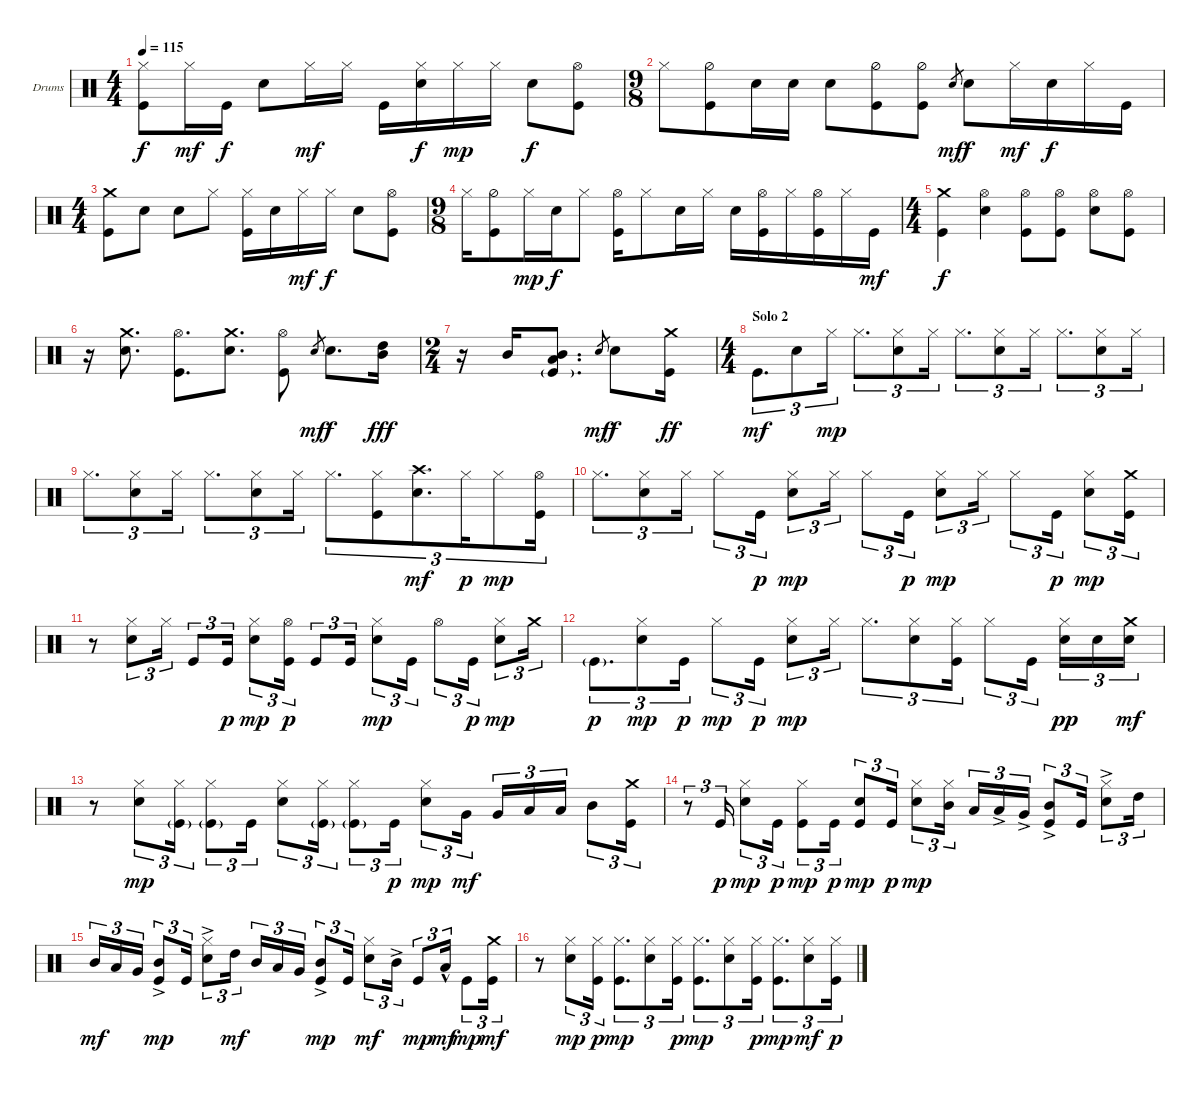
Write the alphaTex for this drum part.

\defaultSystemsLayout 4
\bracketExtendMode groupsimilarinstruments
\firstSystemTrackNameOrientation horizontal
\otherSystemsTrackNameOrientation horizontal
\track ("Batterie " "Drums") {instrument percussion}
\staff {score}
\articulation defaults
\ts (4 4)
\tempo 115
\clef neutral
\ks c
("Kick (hit)" "Hi-Hat (closed)").8{dy f} "Hi-Hat (closed)".16{dy mf} "Kick (hit)".16{dy f} "Snare (hit) 2".8 "Hi-Hat (closed)".16{dy mf} "Hi-Hat (closed)".16 "Kick (hit)".16 ("Snare (hit) 2" "Hi-Hat (closed)").16{dy f} "Hi-Hat (closed)".16{dy mp} "Hi-Hat (closed)".16 "Snare (hit) 2".8{dy f} ("Kick (hit)" "Hi-Hat (open)").8 |
\ts (9 8)
"Hi-Hat (closed)".8 ("Kick (hit)" "Hi-Hat (half)").8 "Snare (hit) 2".16 "Snare (hit) 2".16 "Snare (hit) 2".8 ("Kick (hit)" "Hi-Hat (half)").8 ("Kick (hit)" "Hi-Hat (half)").8 "Snare (hit) 2".8{gr dy mf} "Snare (hit) 2".8{dy f} "Hi-Hat (closed)".16{dy mf} "Snare (hit) 2".16{dy f} "Hi-Hat (closed)".16 "Kick (hit)".16 |
\ts (4 4)
("Kick (hit)" "Crash medium (hit)").8 "Snare (hit) 2".8 "Snare (hit) 2".8 "Hi-Hat (closed)".8 ("Kick (hit)" "Hi-Hat (closed)").16 "Snare (hit) 2".16 "Hi-Hat (closed)".16{dy mf} "Hi-Hat (closed)".16{dy f} "Snare (hit) 2".8 ("Kick (hit)" "Hi-Hat (open)").8 |
\ts (9 8)
"Hi-Hat (closed)".16 ("Kick (hit)" "Hi-Hat (half)").8 "Hi-Hat (closed)".16{dy mp} "Snare (hit) 2".16{dy f} "Hi-Hat (closed)".8 ("Kick (hit)" "Hi-Hat (open)").16 "Hi-Hat (closed)".8 "Snare (hit) 2".16 "Hi-Hat (closed)".16 "Snare (hit) 2".16 ("Kick (hit)" "Hi-Hat (open)").16 "Hi-Hat (closed)".16 ("Kick (hit)" "Hi-Hat (open)").16 "Hi-Hat (closed)".16 "Kick (hit)".16{dy mf} |
\ts (4 4)
("Kick (hit)" "Crash medium (hit)").4{dy f} ("Snare (hit) 2" "Hi-Hat (open)").4 ("Hi-Hat (open)" "Kick (hit)").8 ("Kick (hit)" "Hi-Hat (open)").8 ("Snare (hit) 2" "Hi-Hat (open)").8 ("Kick (hit)" "Hi-Hat (open)").8 |
r.16 ("Snare (hit) 2" "Crash medium (hit)").8{d} ("Kick (hit)" "Hi-Hat (open)").8{d} ("Snare (hit) 2" "Crash medium (hit)").8{d} ("Kick (hit)" "Hi-Hat (open)").8 "Snare (hit) 2".8{gr dy mf} "Snare (hit) 2".8{d dy f} ("Mid Tom (hit)" "High Tom (hit)").16{dy fff} |
\ts (2 4)
r.16 "Mid Tom (hit)".16 ("Mid Tom (hit)" "Low Tom (hit)" "Kick (hit)"{g}).8{d} "Snare (hit) 2".8{gr dy mf} "Snare (hit) 2".8{dy f} ("Kick (hit)" "Crash medium (hit)").16{dy ff} |
\ts (4 4)
\section ("" "Solo 2")
"Kick (hit)".8{d tu (3 2) dy mf} "Snare (hit) 2".8{tu (3 2)} "Hi-Hat (closed)".16{tu (3 2) dy mp} "Hi-Hat (closed)".8{d tu (3 2)} ("Snare (hit) 2" "Hi-Hat (closed)").8{tu (3 2)} "Hi-Hat (closed)".16{tu (3 2)} "Hi-Hat (closed)".8{d tu (3 2)} ("Snare (hit) 2" "Hi-Hat (closed)").8{tu (3 2)} "Hi-Hat (closed)".16{tu (3 2)} "Hi-Hat (closed)".8{d tu (3 2)} ("Snare (hit) 2" "Hi-Hat (closed)").8{tu (3 2)} "Hi-Hat (closed)".16{tu (3 2)} |
"Hi-Hat (closed)".8{d tu (3 2)} ("Snare (hit) 2" "Hi-Hat (closed)").8{tu (3 2)} "Hi-Hat (closed)".16{tu (3 2)} "Hi-Hat (closed)".8{d tu (3 2)} ("Snare (hit) 2" "Hi-Hat (closed)").8{tu (3 2)} "Hi-Hat (closed)".16{tu (3 2)} "Hi-Hat (closed)".8{d tu (3 2)} ("Hi-Hat (closed)" "Kick (hit)").8{tu (3 2)} ("Snare (hit) 2" "Crash high (hit)").8{d tu (3 2) dy mf} "Hi-Hat (closed)".16{tu (3 2) dy p} "Hi-Hat (closed)".8{tu (3 2) dy mp} ("Hi-Hat (open)" "Kick (hit)").16{tu (3 2)} |
"Hi-Hat (closed)".8{d tu (3 2)} ("Hi-Hat (closed)" "Snare (hit) 2").8{tu (3 2)} "Hi-Hat (closed)".16{tu (3 2)} "Hi-Hat (closed)".8{tu (3 2)} "Kick (hit)".16{tu (3 2) dy p} ("Hi-Hat (closed)" "Snare (hit) 2").8{tu (3 2) dy mp} "Hi-Hat (closed)".16{tu (3 2)} "Hi-Hat (closed)".8{tu (3 2)} "Kick (hit)".16{tu (3 2) dy p} ("Hi-Hat (closed)" "Snare (hit) 2").8{tu (3 2) dy mp} "Hi-Hat (closed)".16{tu (3 2)} "Hi-Hat (closed)".8{tu (3 2)} "Kick (hit)".16{tu (3 2) dy p} ("Snare (hit) 2" "Hi-Hat (closed)").8{tu (3 2) dy mp} ("Kick (hit)" "Crash medium (hit)").16{tu (3 2)} |
r.8 ("Snare (hit) 2" "Hi-Hat (closed)").8{tu (3 2)} "Hi-Hat (closed)".16{tu (3 2)} "Kick (hit)".8{tu (3 2)} "Kick (hit)".16{tu (3 2) dy p} ("Snare (hit) 2" "Hi-Hat (closed)").8{tu (3 2) dy mp} ("Kick (hit)" "Hi-Hat (open)").16{tu (3 2) dy p} "Kick (hit)".8{tu (3 2)} "Kick (hit)".16{tu (3 2)} ("Snare (hit) 2" "Hi-Hat (closed)").8{tu (3 2) dy mp} "Kick (hit)".16{tu (3 2)} "Hi-Hat (open)".8{tu (3 2)} "Kick (hit)".16{tu (3 2) dy p} ("Snare (hit) 2" "Hi-Hat (closed)").8{tu (3 2) dy mp} "Crash medium (hit)".16{tu (3 2)} |
"Kick (hit)"{g}.8{d tu (3 2) dy p} ("Snare (hit) 2" "Hi-Hat (closed)").8{tu (3 2) dy mp} "Kick (hit)".16{tu (3 2) dy p} "Hi-Hat (closed)".8{tu (3 2) dy mp} "Kick (hit)".16{tu (3 2) dy p} ("Snare (hit) 2" "Hi-Hat (closed)").8{tu (3 2) dy mp} "Hi-Hat (closed)".16{tu (3 2)} "Hi-Hat (closed)".8{d tu (3 2)} ("Snare (hit) 2" "Hi-Hat (closed)").8{tu (3 2)} ("Kick (hit)" "Hi-Hat (closed)").16{tu (3 2)} "Hi-Hat (closed)".8{tu (3 2)} "Kick (hit)".16{tu (3 2)} ("Hi-Hat (closed)" "Snare (hit) 2").16{tu (3 2) dy pp} "Snare (hit) 2".16{tu (3 2)} ("Snare (hit) 2" "Crash medium (hit)").16{tu (3 2) dy mf} |
r.8 ("Hi-Hat (closed)" "Snare (hit) 2").8{tu (3 2) dy mp} ("Kick (hit)"{g} "Hi-Hat (closed)").16{tu (3 2)} ("Kick (hit)"{g} "Hi-Hat (closed)").8{tu (3 2)} "Kick (hit)".16{tu (3 2)} ("Hi-Hat (closed)" "Snare (hit) 2").8{tu (3 2)} ("Hi-Hat (closed)" "Kick (hit)"{g}).16{tu (3 2)} ("Hi-Hat (closed)" "Kick (hit)"{g}).8{tu (3 2)} "Kick (hit)".16{tu (3 2) dy p} ("Snare (hit) 2" "Hi-Hat (closed)").8{tu (3 2) dy mp} "Very Low Tom (hit)".16{tu (3 2) dy mf} "Very Low Tom (hit)".16{tu (3 2)} "Low Tom (hit)".16{tu (3 2)} "Low Tom (hit)".16{tu (3 2)} "Mid Tom (hit)".8{tu (3 2)} ("Crash medium (hit)" "Kick (hit)").16{tu (3 2)} |
r.8{tu (3 2)} "Kick (hit)".16{tu (3 2) dy p} ("Snare (hit) 2" "Hi-Hat (closed)").8{tu (3 2) dy mp} "Kick (hit)".16{tu (3 2) dy p} ("Kick (hit)" "Hi-Hat (closed)").8{tu (3 2) dy mp} "Kick (hit)".16{tu (3 2) dy p} ("Kick (hit)" "Snare (hit) 2").8{tu (3 2) dy mp} "Kick (hit)".16{tu (3 2) dy p} ("Snare (hit) 2" "Hi-Hat (closed)").8{tu (3 2) dy mp} ("Mid Tom (hit)" "Hi-Hat (closed)").16{tu (3 2)} "Low Tom (hit)".16{tu (3 2)} "Low Tom (hit)"{ac}.16{tu (3 2)} "Very Low Tom (hit)"{ac}.16{tu (3 2)} ("Mid Tom (hit)"{ac} "Kick (hit)").8{tu (3 2)} "Kick (hit)".16{tu (3 2)} ("Snare (hit) 2" "Hi-Hat (closed)"{ac}).8{tu (3 2)} "High Tom (hit)".16{tu (3 2)} |
"Mid Tom (hit)".16{tu (3 2) dy mf} "Low Tom (hit)".16{tu (3 2)} "Very Low Tom (hit)".16{tu (3 2)} ("Kick (hit)" "Mid Tom (hit)"{ac}).8{tu (3 2) dy mp} "Kick (hit)".16{tu (3 2)} ("Snare (hit) 2" "Hi-Hat (closed)"{ac}).8{tu (3 2)} "High Tom (hit)".16{tu (3 2) dy mf} "Mid Tom (hit)".16{tu (3 2)} "Low Tom (hit)".16{tu (3 2)} "Very Low Tom (hit)".16{tu (3 2)} ("Kick (hit)" "Mid Tom (hit)"{ac}).8{tu (3 2) dy mp} "Kick (hit)".16{tu (3 2)} ("Snare (hit) 2" "Hi-Hat (closed)").8{tu (3 2) dy mf} "Mid Tom (hit)"{ac}.16{tu (3 2)} "Kick (hit)".8{tu (3 2) dy mp} "Low Tom (hit)"{hac}.16{tu (3 2) dy mf} "Kick (hit)".8{tu (3 2) dy mp} ("Kick (hit)" "Crash medium (hit)").16{tu (3 2) dy mf} |
r.8 ("Snare (hit) 2" "Hi-Hat (closed)").8{tu (3 2) dy mp} ("Kick (hit)" "Hi-Hat (closed)").16{tu (3 2) dy p} ("Kick (hit)" "Hi-Hat (closed)").8{d tu (3 2) dy mp} ("Snare (hit) 2" "Hi-Hat (closed)").8{tu (3 2)} ("Kick (hit)" "Hi-Hat (closed)").16{tu (3 2) dy p} ("Kick (hit)" "Hi-Hat (closed)").8{d tu (3 2) dy mp} ("Snare (hit) 2" "Hi-Hat (closed)").8{tu (3 2)} ("Kick (hit)" "Hi-Hat (closed)").16{tu (3 2) dy p} ("Kick (hit)" "Hi-Hat (closed)").8{d tu (3 2) dy mp} ("Snare (hit) 2" "Hi-Hat (closed)").8{tu (3 2) dy mf} ("Kick (hit)" "Hi-Hat (closed)").16{tu (3 2) dy p}
